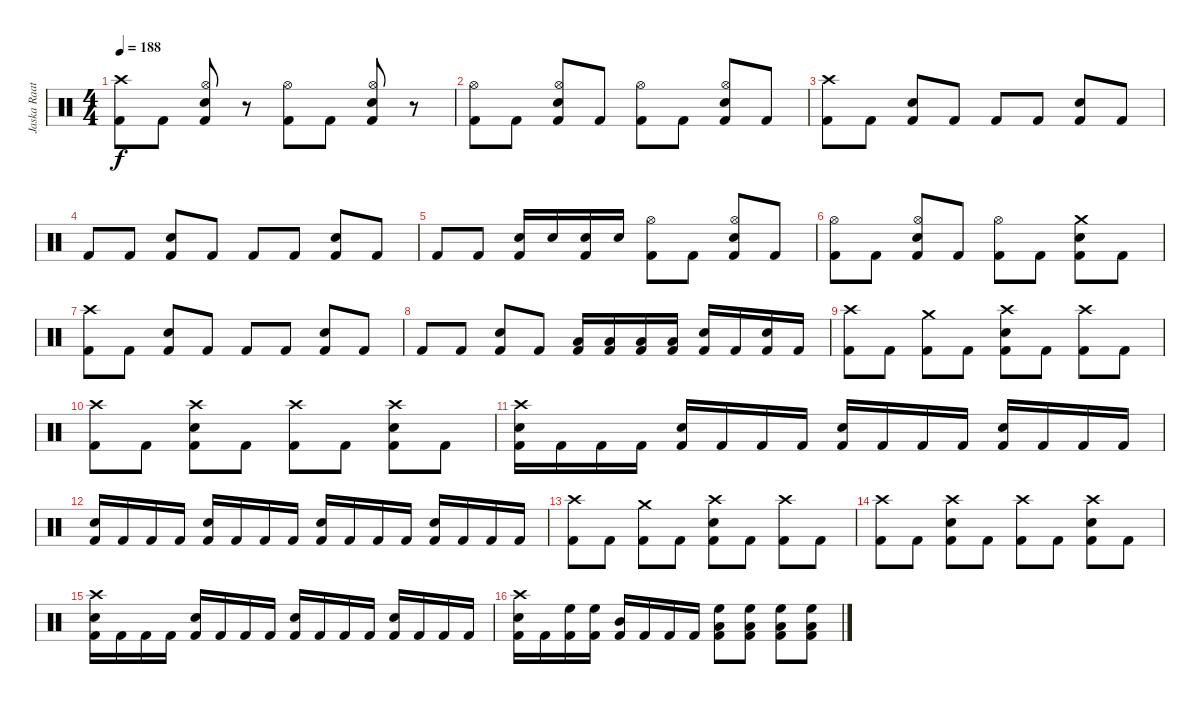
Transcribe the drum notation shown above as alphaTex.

\track ("Jaska Raatikainen" "Jaska Raat") {instrument percussion}
\staff {score}
\articulation defaults
\ts (4 4)
\tempo 188
\clef neutral
\ks c
("Crash high (hit)" "Kick (hit) 2").8{dy f} "Kick (hit) 2".8 ("Hi-Hat (open)" "Electric Snare (hit)" "Kick (hit) 2").8 r.8 ("Hi-Hat (open)" "Kick (hit) 2").8 "Kick (hit) 2".8 ("Hi-Hat (open)" "Electric Snare (hit)" "Kick (hit) 2").8 r.8 |
("Hi-Hat (open)" "Kick (hit) 2").8 "Kick (hit) 2".8 ("Hi-Hat (open)" "Electric Snare (hit)" "Kick (hit) 2").8 "Kick (hit) 2".8 ("Hi-Hat (open)" "Kick (hit) 2").8 "Kick (hit) 2".8 ("Hi-Hat (open)" "Electric Snare (hit)" "Kick (hit) 2").8 "Kick (hit) 2".8 |
("Crash high (hit)" "Kick (hit) 2").8 "Kick (hit) 2".8 ("Electric Snare (hit)" "Kick (hit) 2").8 "Kick (hit) 2".8 "Kick (hit) 2".8 "Kick (hit) 2".8 ("Electric Snare (hit)" "Kick (hit) 2").8 "Kick (hit) 2".8 |
"Kick (hit) 2".8 "Kick (hit) 2".8 ("Electric Snare (hit)" "Kick (hit) 2").8 "Kick (hit) 2".8 "Kick (hit) 2".8 "Kick (hit) 2".8 ("Electric Snare (hit)" "Kick (hit) 2").8 "Kick (hit) 2".8 |
"Kick (hit) 2".8 "Kick (hit) 2".8 ("Electric Snare (hit)" "Kick (hit) 2").16 "Electric Snare (hit)".16 ("Electric Snare (hit)" "Kick (hit) 2").16 "Electric Snare (hit)".16 ("Hi-Hat (open)" "Kick (hit) 2").8 "Kick (hit) 2".8 ("Hi-Hat (open)" "Electric Snare (hit)" "Kick (hit) 2").8 "Kick (hit) 2".8 |
("Hi-Hat (open)" "Kick (hit) 2").8 "Kick (hit) 2".8 ("Hi-Hat (open)" "Electric Snare (hit)" "Kick (hit) 2").8 "Kick (hit) 2".8 ("Hi-Hat (open)" "Kick (hit) 2").8 "Kick (hit) 2".8 ("Crash medium (hit)" "Electric Snare (hit)" "Kick (hit) 2").8 "Kick (hit) 2".8 |
("Crash high (hit)" "Kick (hit) 2").8 "Kick (hit) 2".8 ("Electric Snare (hit)" "Kick (hit) 2").8 "Kick (hit) 2".8 "Kick (hit) 2".8 "Kick (hit) 2".8 ("Electric Snare (hit)" "Kick (hit) 2").8 "Kick (hit) 2".8 |
"Kick (hit) 2".8 "Kick (hit) 2".8 ("Electric Snare (hit)" "Kick (hit) 2").8 "Kick (hit) 2".8 ("Low Tom (hit)" "Kick (hit) 2").16 ("Low Tom (hit)" "Kick (hit) 2").16 ("Low Tom (hit)" "Kick (hit) 2").16 ("Low Tom (hit)" "Kick (hit) 2").16 ("Electric Snare (hit)" "Kick (hit) 2").16 "Kick (hit) 2".16 ("Electric Snare (hit)" "Kick (hit) 2").16 "Kick (hit) 2".16 |
("Crash high (hit)" "Kick (hit) 2").8 "Kick (hit) 2".8 ("Crash medium (hit)" "Kick (hit) 2").8 "Kick (hit) 2".8 ("Crash high (hit)" "Electric Snare (hit)" "Kick (hit) 2").8 "Kick (hit) 2".8 ("Crash high (hit)" "Kick (hit) 2").8 "Kick (hit) 2".8 |
("Crash high (hit)" "Kick (hit) 2").8 "Kick (hit) 2".8 ("Crash high (hit)" "Electric Snare (hit)" "Kick (hit) 2").8 "Kick (hit) 2".8 ("Crash high (hit)" "Kick (hit) 2").8 "Kick (hit) 2".8 ("Crash high (hit)" "Electric Snare (hit)" "Kick (hit) 2").8 "Kick (hit) 2".8 |
("Crash high (hit)" "Electric Snare (hit)" "Kick (hit) 2").16 "Kick (hit) 2".16 "Kick (hit) 2".16 "Kick (hit) 2".16 ("Electric Snare (hit)" "Kick (hit) 2").16 "Kick (hit) 2".16 "Kick (hit) 2".16 "Kick (hit) 2".16 ("Electric Snare (hit)" "Kick (hit) 2").16 "Kick (hit) 2".16 "Kick (hit) 2".16 "Kick (hit) 2".16 ("Electric Snare (hit)" "Kick (hit) 2").16 "Kick (hit) 2".16 "Kick (hit) 2".16 "Kick (hit) 2".16 |
("Electric Snare (hit)" "Kick (hit) 2").16 "Kick (hit) 2".16 "Kick (hit) 2".16 "Kick (hit) 2".16 ("Electric Snare (hit)" "Kick (hit) 2").16 "Kick (hit) 2".16 "Kick (hit) 2".16 "Kick (hit) 2".16 ("Electric Snare (hit)" "Kick (hit) 2").16 "Kick (hit) 2".16 "Kick (hit) 2".16 "Kick (hit) 2".16 ("Electric Snare (hit)" "Kick (hit) 2").16 "Kick (hit) 2".16 "Kick (hit) 2".16 "Kick (hit) 2".16 |
("Crash high (hit)" "Kick (hit) 2").8 "Kick (hit) 2".8 ("Crash medium (hit)" "Kick (hit) 2").8 "Kick (hit) 2".8 ("Crash high (hit)" "Electric Snare (hit)" "Kick (hit) 2").8 "Kick (hit) 2".8 ("Crash high (hit)" "Kick (hit) 2").8 "Kick (hit) 2".8 |
("Crash high (hit)" "Kick (hit) 2").8 "Kick (hit) 2".8 ("Crash high (hit)" "Electric Snare (hit)" "Kick (hit) 2").8 "Kick (hit) 2".8 ("Crash high (hit)" "Kick (hit) 2").8 "Kick (hit) 2".8 ("Crash high (hit)" "Electric Snare (hit)" "Kick (hit) 2").8 "Kick (hit) 2".8 |
("Crash high (hit)" "Electric Snare (hit)" "Kick (hit) 2").16 "Kick (hit) 2".16 "Kick (hit) 2".16 "Kick (hit) 2".16 ("Electric Snare (hit)" "Kick (hit) 2").16 "Kick (hit) 2".16 "Kick (hit) 2".16 "Kick (hit) 2".16 ("Electric Snare (hit)" "Kick (hit) 2").16 "Kick (hit) 2".16 "Kick (hit) 2".16 "Kick (hit) 2".16 ("Electric Snare (hit)" "Kick (hit) 2").16 "Kick (hit) 2".16 "Kick (hit) 2".16 "Kick (hit) 2".16 |
("Crash high (hit)" "Electric Snare (hit)" "Kick (hit) 2").16 "Kick (hit) 2".16 ("High Floor Tom (hit)" "Kick (hit) 2").16 ("High Floor Tom (hit)" "Kick (hit) 2").16 ("Mid Tom (hit)" "Kick (hit) 2").16 "Kick (hit) 2".16 "Kick (hit) 2".16 "Kick (hit) 2".16 ("High Floor Tom (hit)" "Low Tom (hit)" "Kick (hit) 2").8 ("High Floor Tom (hit)" "Low Tom (hit)" "Kick (hit) 2").8 ("High Floor Tom (hit)" "Low Tom (hit)" "Kick (hit) 2").8 ("High Floor Tom (hit)" "Low Tom (hit)" "Kick (hit) 2").8
